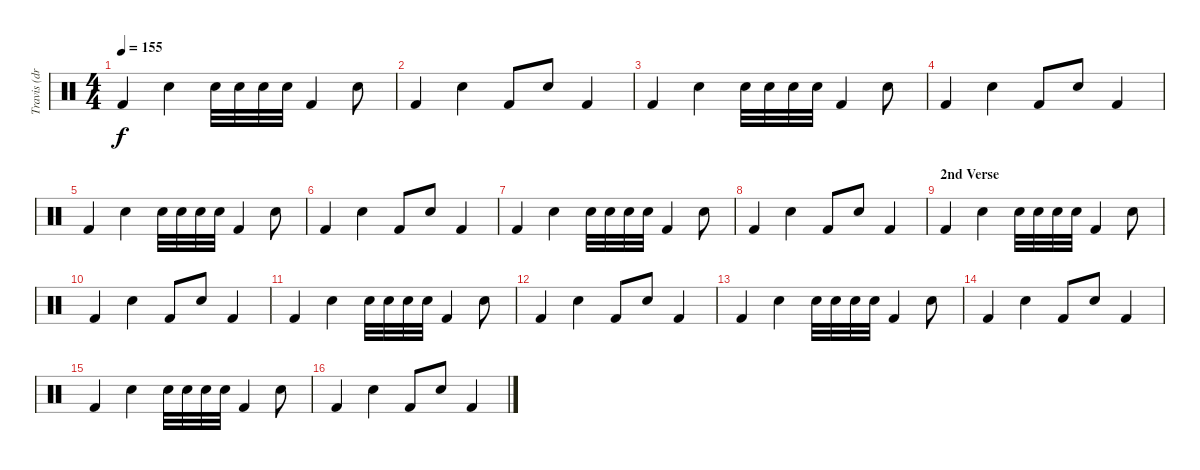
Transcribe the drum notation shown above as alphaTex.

\track ("Travis (drums)" "Travis (dr") {instrument percussion}
\staff {score}
\articulation defaults
\ts (4 4)
\tempo 155
\clef neutral
\ks c "Kick (hit) 2".4{dy f} "Snare (hit) 2".4 "Snare (hit) 2".32 "Snare (hit) 2".32 "Snare (hit) 2".32 "Snare (hit) 2".32 "Kick (hit) 2".4 "Snare (hit) 2".8
|
"Kick (hit) 2".4 "Snare (hit) 2".4 "Kick (hit) 2".8 "Snare (hit) 2".8 "Kick (hit) 2".4 |
"Kick (hit) 2".4 "Snare (hit) 2".4 "Snare (hit) 2".32 "Snare (hit) 2".32 "Snare (hit) 2".32 "Snare (hit) 2".32 "Kick (hit) 2".4 "Snare (hit) 2".8 |
"Kick (hit) 2".4 "Snare (hit) 2".4 "Kick (hit) 2".8 "Snare (hit) 2".8 "Kick (hit) 2".4 |
"Kick (hit) 2".4 "Snare (hit) 2".4 "Snare (hit) 2".32 "Snare (hit) 2".32 "Snare (hit) 2".32 "Snare (hit) 2".32 "Kick (hit) 2".4 "Snare (hit) 2".8 |
"Kick (hit) 2".4 "Snare (hit) 2".4 "Kick (hit) 2".8 "Snare (hit) 2".8 "Kick (hit) 2".4 |
"Kick (hit) 2".4 "Snare (hit) 2".4 "Snare (hit) 2".32 "Snare (hit) 2".32 "Snare (hit) 2".32 "Snare (hit) 2".32 "Kick (hit) 2".4 "Snare (hit) 2".8 |
"Kick (hit) 2".4 "Snare (hit) 2".4 "Kick (hit) 2".8 "Snare (hit) 2".8 "Kick (hit) 2".4 |
\section ("" "2nd Verse")
"Kick (hit) 2".4 "Snare (hit) 2".4 "Snare (hit) 2".32 "Snare (hit) 2".32 "Snare (hit) 2".32 "Snare (hit) 2".32 "Kick (hit) 2".4 "Snare (hit) 2".8 |
"Kick (hit) 2".4 "Snare (hit) 2".4 "Kick (hit) 2".8 "Snare (hit) 2".8 "Kick (hit) 2".4 |
"Kick (hit) 2".4 "Snare (hit) 2".4 "Snare (hit) 2".32 "Snare (hit) 2".32 "Snare (hit) 2".32 "Snare (hit) 2".32 "Kick (hit) 2".4 "Snare (hit) 2".8 |
"Kick (hit) 2".4 "Snare (hit) 2".4 "Kick (hit) 2".8 "Snare (hit) 2".8 "Kick (hit) 2".4 |
"Kick (hit) 2".4 "Snare (hit) 2".4 "Snare (hit) 2".32 "Snare (hit) 2".32 "Snare (hit) 2".32 "Snare (hit) 2".32 "Kick (hit) 2".4 "Snare (hit) 2".8 |
"Kick (hit) 2".4 "Snare (hit) 2".4 "Kick (hit) 2".8 "Snare (hit) 2".8 "Kick (hit) 2".4 |
"Kick (hit) 2".4 "Snare (hit) 2".4 "Snare (hit) 2".32 "Snare (hit) 2".32 "Snare (hit) 2".32 "Snare (hit) 2".32 "Kick (hit) 2".4 "Snare (hit) 2".8 |
"Kick (hit) 2".4 "Snare (hit) 2".4 "Kick (hit) 2".8 "Snare (hit) 2".8 "Kick (hit) 2".4
